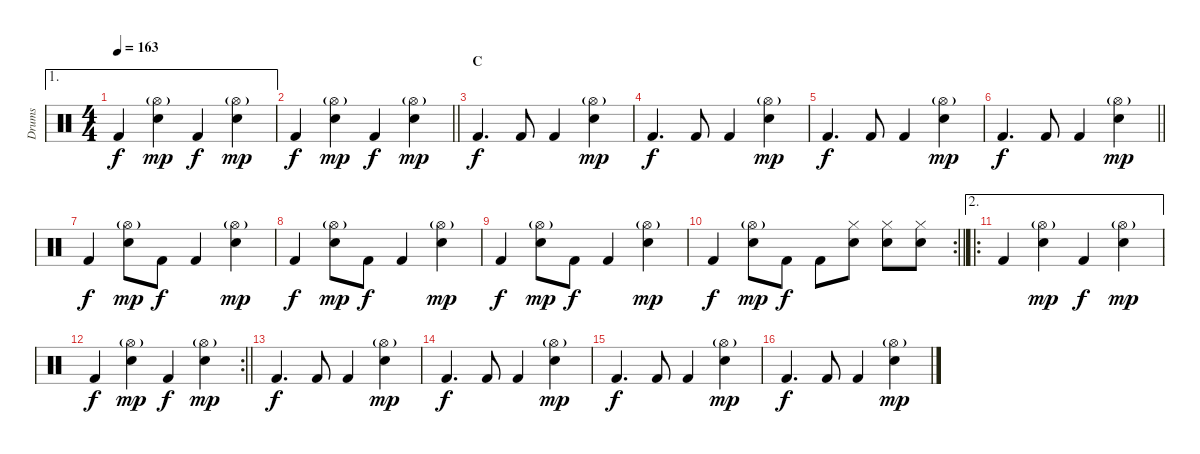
\track ("Drums" "Drums") {instrument percussion}
\staff {score}
\articulation defaults
\ae 1
\ts (4 4)
\section ("" " ")
\tempo 163
\clef neutral
\ks c "Kick (hit) 2".4{dy f}
("Hi-Hat (open)"{g} "Snare (hit) 2").4{dy mp} "Kick (hit) 2".4{dy f} ("Hi-Hat (open)"{g} "Snare (hit) 2").4{dy mp} |
\barLineRight lightlight "Kick (hit) 2".4{dy f}
("Hi-Hat (open)"{g} "Snare (hit) 2").4{dy mp} "Kick (hit) 2".4{dy f} ("Hi-Hat (open)"{g} "Snare (hit) 2").4{dy mp} |
\section ("" "C")
"Kick (hit) 2".4{d dy f} "Kick (hit) 2".8 "Kick (hit) 2".4 ("Hi-Hat (open)"{g} "Snare (hit) 2").4{dy mp} |
"Kick (hit) 2".4{d dy f} "Kick (hit) 2".8 "Kick (hit) 2".4 ("Hi-Hat (open)"{g} "Snare (hit) 2").4{dy mp} |
"Kick (hit) 2".4{d dy f} "Kick (hit) 2".8 "Kick (hit) 2".4 ("Hi-Hat (open)"{g} "Snare (hit) 2").4{dy mp} |
\barLineRight lightlight "Kick (hit) 2".4{d dy f} "Kick (hit) 2".8 "Kick (hit) 2".4
("Hi-Hat (open)"{g} "Snare (hit) 2").4{dy mp} |
\section ("" " ")
"Kick (hit) 2".4{dy f} ("Hi-Hat (open)"{g} "Snare (hit) 2").8{dy mp} "Kick (hit) 2".8{dy f} "Kick (hit) 2".4 ("Hi-Hat (open)"{g} "Snare (hit) 2").4{dy mp} |
"Kick (hit) 2".4{dy f} ("Hi-Hat (open)"{g} "Snare (hit) 2").8{dy mp} "Kick (hit) 2".8{dy f} "Kick (hit) 2".4 ("Hi-Hat (open)"{g} "Snare (hit) 2").4{dy mp} |
"Kick (hit) 2".4{dy f} ("Hi-Hat (open)"{g} "Snare (hit) 2").8{dy mp} "Kick (hit) 2".8{dy f} "Kick (hit) 2".4 ("Hi-Hat (open)"{g} "Snare (hit) 2").4{dy mp} |
\rc 2
\barLineRight lightlight "Kick (hit) 2".4{dy f}
("Hi-Hat (open)"{g} "Snare (hit) 2").8{dy mp} "Kick (hit) 2".8{dy f} "Kick (hit) 2".8 ("Hi-Hat (closed)" "Snare (hit) 2").8 ("Hi-Hat (closed)" "Snare (hit) 2").8 ("Hi-Hat (closed)" "Snare (hit) 2").8 |
\ae 2
\ro "Kick (hit) 2".4
("Hi-Hat (open)"{g} "Snare (hit) 2").4{dy mp} "Kick (hit) 2".4{dy f} ("Hi-Hat (open)"{g} "Snare (hit) 2").4{dy mp} |
\rc 2
\barLineRight lightlight "Kick (hit) 2".4{dy f}
("Hi-Hat (open)"{g} "Snare (hit) 2").4{dy mp} "Kick (hit) 2".4{dy f} ("Hi-Hat (open)"{g} "Snare (hit) 2").4{dy mp} |
\section ("" "")
"Kick (hit) 2".4{d dy f} "Kick (hit) 2".8 "Kick (hit) 2".4 ("Hi-Hat (open)"{g} "Snare (hit) 2").4{dy mp} |
"Kick (hit) 2".4{d dy f} "Kick (hit) 2".8 "Kick (hit) 2".4 ("Hi-Hat (open)"{g} "Snare (hit) 2").4{dy mp} |
"Kick (hit) 2".4{d dy f} "Kick (hit) 2".8 "Kick (hit) 2".4 ("Hi-Hat (open)"{g} "Snare (hit) 2").4{dy mp} |
"Kick (hit) 2".4{d dy f} "Kick (hit) 2".8 "Kick (hit) 2".4 ("Hi-Hat (open)"{g} "Snare (hit) 2").4{dy mp}
